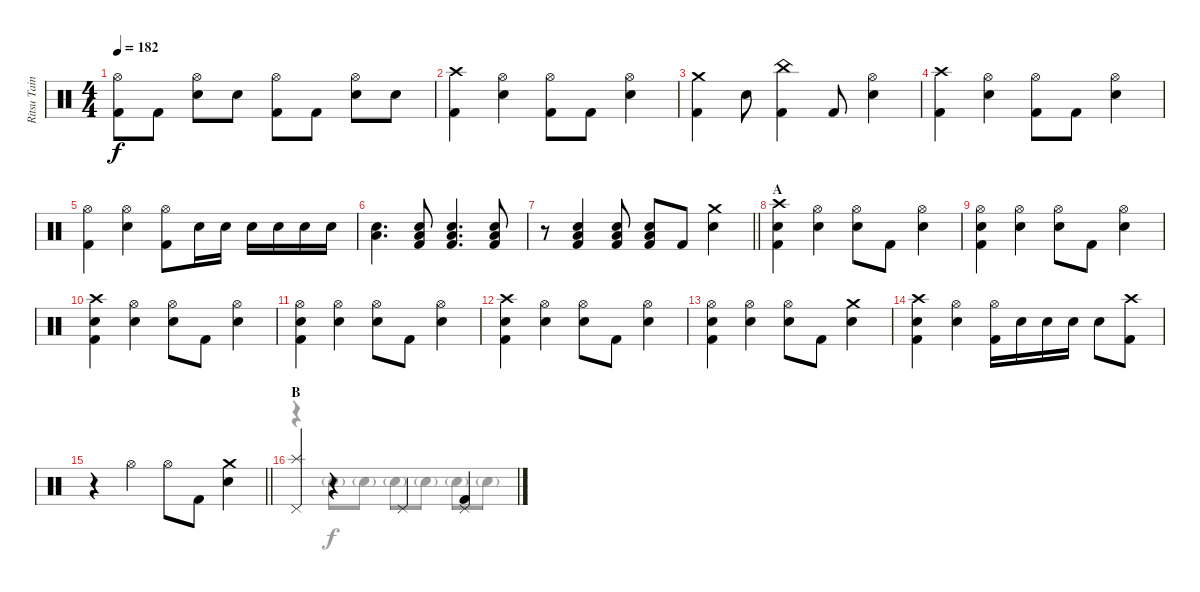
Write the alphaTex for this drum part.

\track ("Ritsu Tainaka" "Ritsu Tain") {instrument percussion}
\staff {score}
\articulation defaults
\voice
\ts (4 4)
\tempo 182
\clef neutral
\ks c
("Hi-Hat (open)" "Kick (hit) 2").8{dy f} "Kick (hit) 2".8 ("Hi-Hat (open)" "Electric Snare (hit)").8 "Electric Snare (hit)".8 ("Hi-Hat (open)" "Kick (hit) 2").8 "Kick (hit) 2".8 ("Hi-Hat (open)" "Electric Snare (hit)").8 "Electric Snare (hit)".8 |
("Crash high (hit)" "Kick (hit) 2").4 ("Hi-Hat (open)" "Electric Snare (hit)").4 ("Hi-Hat (open)" "Kick (hit) 2").8 "Kick (hit) 2".8 ("Hi-Hat (open)" "Electric Snare (hit)").4 |
("Crash medium (hit)" "Kick (hit) 2").4 "Electric Snare (hit)".8 ("China (hit)" "Kick (hit) 2").4 "Kick (hit) 2".8 ("Hi-Hat (open)" "Electric Snare (hit)").4 |
("Crash high (hit)" "Kick (hit) 2").4 ("Hi-Hat (open)" "Electric Snare (hit)").4 ("Hi-Hat (open)" "Kick (hit) 2").8 "Kick (hit) 2".8 ("Hi-Hat (open)" "Electric Snare (hit)").4 |
("Hi-Hat (open)" "Kick (hit) 2").4 ("Hi-Hat (open)" "Electric Snare (hit)").4 ("Hi-Hat (open)" "Kick (hit) 2").8 "Electric Snare (hit)".16 "Electric Snare (hit)".16 "Electric Snare (hit)".16 "Electric Snare (hit)".16 "Electric Snare (hit)".16 "Electric Snare (hit)".16 |
("Electric Snare (hit)" "Low Floor Tom (hit)").4{d} ("Electric Snare (hit)" "Low Floor Tom (hit)" "Kick (hit) 2").8 ("Electric Snare (hit)" "Low Floor Tom (hit)" "Kick (hit) 2").4{d} ("Electric Snare (hit)" "Low Floor Tom (hit)" "Kick (hit) 2").8 |
\barLineRight lightlight
r.8 ("Electric Snare (hit)" "Low Floor Tom (hit)" "Kick (hit) 2").4 ("Electric Snare (hit)" "Low Floor Tom (hit)" "Kick (hit) 2").8 ("Electric Snare (hit)" "Low Floor Tom (hit)" "Kick (hit) 2").8 "Kick (hit) 2".8 ("Crash medium (hit)" "Electric Snare (hit)").4 |
\section ("" "A")
("Crash high (hit)" "Electric Snare (hit)" "Kick (hit) 2").4 ("Hi-Hat (open)" "Electric Snare (hit)").4 ("Hi-Hat (open)" "Electric Snare (hit)").8 "Kick (hit) 2".8 ("Hi-Hat (open)" "Electric Snare (hit)").4 |
("Hi-Hat (open)" "Electric Snare (hit)" "Kick (hit) 2").4 ("Hi-Hat (open)" "Electric Snare (hit)").4 ("Hi-Hat (open)" "Electric Snare (hit)").8 "Kick (hit) 2".8 ("Hi-Hat (open)" "Electric Snare (hit)").4 |
("Crash high (hit)" "Electric Snare (hit)" "Kick (hit) 2").4 ("Hi-Hat (open)" "Electric Snare (hit)").4 ("Hi-Hat (open)" "Electric Snare (hit)").8 "Kick (hit) 2".8 ("Hi-Hat (open)" "Electric Snare (hit)").4 |
("Hi-Hat (open)" "Electric Snare (hit)" "Kick (hit) 2").4 ("Hi-Hat (open)" "Electric Snare (hit)").4 ("Hi-Hat (open)" "Electric Snare (hit)").8 "Kick (hit) 2".8 ("Hi-Hat (open)" "Electric Snare (hit)").4 |
("Crash high (hit)" "Electric Snare (hit)" "Kick (hit) 2").4 ("Hi-Hat (open)" "Electric Snare (hit)").4 ("Hi-Hat (open)" "Electric Snare (hit)").8 "Kick (hit) 2".8 ("Hi-Hat (open)" "Electric Snare (hit)").4 |
("Hi-Hat (open)" "Electric Snare (hit)" "Kick (hit) 2").4 ("Hi-Hat (open)" "Electric Snare (hit)").4 ("Hi-Hat (open)" "Electric Snare (hit)").8 "Kick (hit) 2".8 ("Crash medium (hit)" "Electric Snare (hit)").4 |
("Crash high (hit)" "Electric Snare (hit)" "Kick (hit) 2").4 ("Hi-Hat (open)" "Electric Snare (hit)").4 ("Hi-Hat (open)" "Kick (hit) 2").16 "Electric Snare (hit)".16 "Electric Snare (hit)".16 "Electric Snare (hit)".16 "Electric Snare (hit)".8 ("Crash high (hit)" "Kick (hit) 2").8 |
\barLineRight lightlight
r.4 "Hi-Hat (open)".4 "Hi-Hat (open)".8 "Kick (hit) 2".8 ("Crash medium (hit)" "Electric Snare (hit)").4 |
\section ("" "B")
("Splash (hit)" "Pedal Hi-Hat (hit)").4 r.4 "Pedal Hi-Hat (hit)".4 ("Pedal Hi-Hat (hit)" "Kick (hit) 2").4
\voice
\clef neutral
\ottava regular
\simile none
\ks c
|
|
|
|
|
|
\barLineRight lightlight
|
|
|
|
|
|
|
|
\barLineRight lightlight
|
r.4 "Electric Snare (hit)"{g}.8 "Electric Snare (hit)"{g}.8 "Electric Snare (hit)"{g}.8 "Electric Snare (hit)"{g}.8 "Electric Snare (hit)"{g}.8 "Electric Snare (hit)"{g}.8
